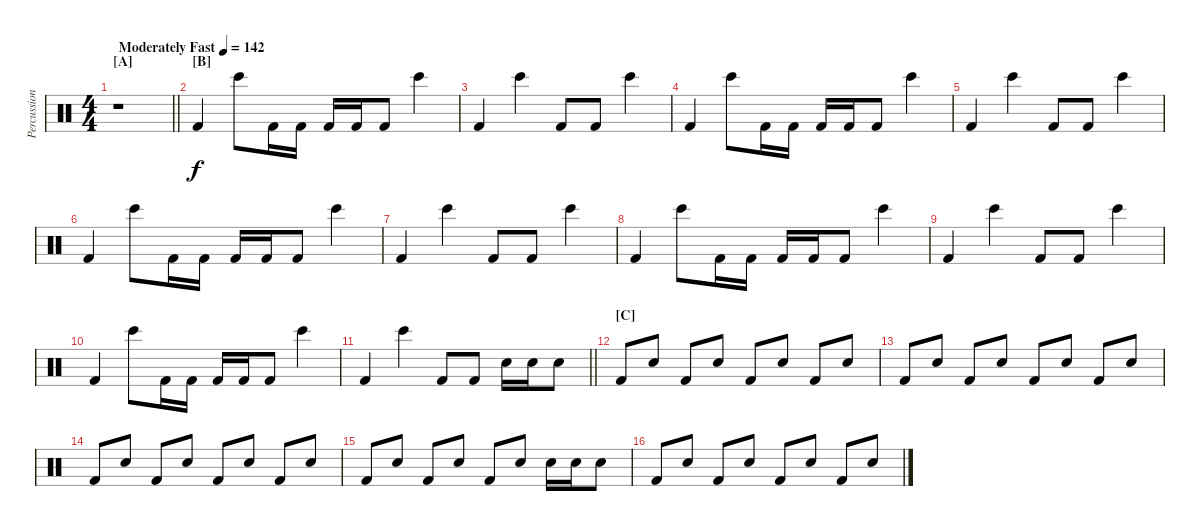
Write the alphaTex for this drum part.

\track ("Percussions" "Percussion") {instrument percussion}
\staff {score}
\articulation defaults
\ts (4 4)
\section ("" "[A]")
\tempo (142 "Moderately Fast")
\clef neutral
\barLineRight lightlight
\ks c
r.1{dy f} |
\section ("" "[B]")
"Kick (hit) 2".4 "Bongo High (hit)".8 "Kick (hit) 2".16 "Kick (hit) 2".16 "Kick (hit) 2".16 "Kick (hit) 2".16 "Kick (hit) 2".8 "Bongo High (hit)".4 |
"Kick (hit) 2".4 "Bongo High (hit)".4 "Kick (hit) 2".8 "Kick (hit) 2".8 "Bongo High (hit)".4 |
"Kick (hit) 2".4 "Bongo High (hit)".8 "Kick (hit) 2".16 "Kick (hit) 2".16 "Kick (hit) 2".16 "Kick (hit) 2".16 "Kick (hit) 2".8 "Bongo High (hit)".4 |
"Kick (hit) 2".4 "Bongo High (hit)".4 "Kick (hit) 2".8 "Kick (hit) 2".8 "Bongo High (hit)".4 |
"Kick (hit) 2".4 "Bongo High (hit)".8 "Kick (hit) 2".16 "Kick (hit) 2".16 "Kick (hit) 2".16 "Kick (hit) 2".16 "Kick (hit) 2".8 "Bongo High (hit)".4 |
"Kick (hit) 2".4 "Bongo High (hit)".4 "Kick (hit) 2".8 "Kick (hit) 2".8 "Bongo High (hit)".4 |
"Kick (hit) 2".4 "Bongo High (hit)".8 "Kick (hit) 2".16 "Kick (hit) 2".16 "Kick (hit) 2".16 "Kick (hit) 2".16 "Kick (hit) 2".8 "Bongo High (hit)".4 |
"Kick (hit) 2".4 "Bongo High (hit)".4 "Kick (hit) 2".8 "Kick (hit) 2".8 "Bongo High (hit)".4 |
"Kick (hit) 2".4 "Bongo High (hit)".8 "Kick (hit) 2".16 "Kick (hit) 2".16 "Kick (hit) 2".16 "Kick (hit) 2".16 "Kick (hit) 2".8 "Bongo High (hit)".4 |
\barLineRight lightlight "Kick (hit) 2".4 "Bongo High (hit)".4 "Kick (hit) 2".8 "Kick (hit) 2".8 "Electric Snare (hit)".16 "Electric Snare (hit)".16 "Electric Snare (hit)".8
|
\section ("" "[C]")
"Kick (hit) 2".8 "Electric Snare (hit)".8 "Kick (hit) 2".8 "Electric Snare (hit)".8 "Kick (hit) 2".8 "Electric Snare (hit)".8 "Kick (hit) 2".8 "Electric Snare (hit)".8 |
"Kick (hit) 2".8 "Electric Snare (hit)".8 "Kick (hit) 2".8 "Electric Snare (hit)".8 "Kick (hit) 2".8 "Electric Snare (hit)".8 "Kick (hit) 2".8 "Electric Snare (hit)".8 |
"Kick (hit) 2".8 "Electric Snare (hit)".8 "Kick (hit) 2".8 "Electric Snare (hit)".8 "Kick (hit) 2".8 "Electric Snare (hit)".8 "Kick (hit) 2".8 "Electric Snare (hit)".8 |
"Kick (hit) 2".8 "Electric Snare (hit)".8 "Kick (hit) 2".8 "Electric Snare (hit)".8 "Kick (hit) 2".8 "Electric Snare (hit)".8 "Electric Snare (hit)".16 "Electric Snare (hit)".16 "Electric Snare (hit)".8 |
"Kick (hit) 2".8 "Electric Snare (hit)".8 "Kick (hit) 2".8 "Electric Snare (hit)".8 "Kick (hit) 2".8 "Electric Snare (hit)".8 "Kick (hit) 2".8 "Electric Snare (hit)".8
